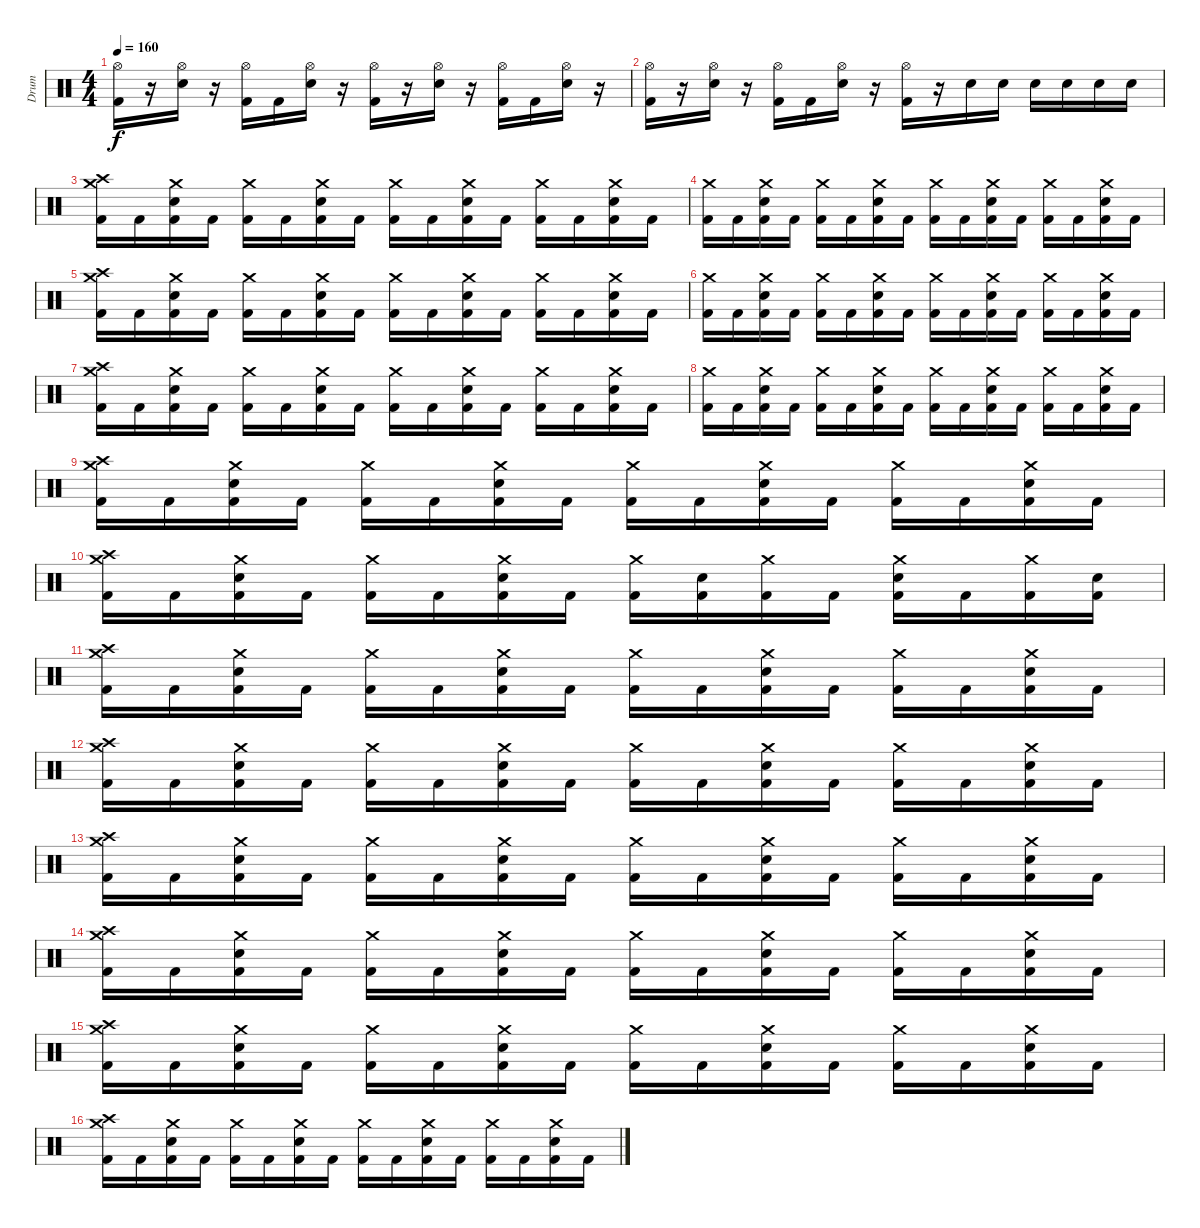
\track ("Drum" "Drum") {instrument percussion}
\staff {score}
\articulation defaults
\ts (4 4)
\tempo 160
\clef neutral
\ks c
("Hi-Hat (open)" "Kick (hit) 2").16{dy f} r.16 ("Hi-Hat (open)" "Electric Snare (hit)").16 r.16 ("Hi-Hat (open)" "Kick (hit) 2").16 "Kick (hit) 2".16 ("Hi-Hat (open)" "Electric Snare (hit)").16 r.16 ("Hi-Hat (open)" "Kick (hit) 2").16 r.16 ("Hi-Hat (open)" "Electric Snare (hit)").16 r.16 ("Hi-Hat (open)" "Kick (hit) 2").16 "Kick (hit) 2".16 ("Hi-Hat (open)" "Electric Snare (hit)").16 r.16 |
("Hi-Hat (open)" "Kick (hit) 2").16 r.16 ("Hi-Hat (open)" "Electric Snare (hit)").16 r.16 ("Hi-Hat (open)" "Kick (hit) 2").16 "Kick (hit) 2".16 ("Hi-Hat (open)" "Electric Snare (hit)").16 r.16 ("Hi-Hat (open)" "Kick (hit) 2").16 r.16 "Electric Snare (hit)".16 "Electric Snare (hit)".16 "Electric Snare (hit)".16 "Electric Snare (hit)".16 "Electric Snare (hit)".16 "Electric Snare (hit)".16 |
("Crash high (hit)" "Crash medium (hit)" "Kick (hit) 2").16 "Kick (hit) 2".16 ("Crash medium (hit)" "Kick (hit) 2" "Electric Snare (hit)").16 "Kick (hit) 2".16 ("Crash medium (hit)" "Kick (hit) 2").16 "Kick (hit) 2".16 ("Crash medium (hit)" "Kick (hit) 2" "Electric Snare (hit)").16 "Kick (hit) 2".16 ("Crash medium (hit)" "Kick (hit) 2").16 "Kick (hit) 2".16 ("Crash medium (hit)" "Kick (hit) 2" "Electric Snare (hit)").16 "Kick (hit) 2".16 ("Crash medium (hit)" "Kick (hit) 2").16 "Kick (hit) 2".16 ("Crash medium (hit)" "Kick (hit) 2" "Electric Snare (hit)").16 "Kick (hit) 2".16 |
("Crash medium (hit)" "Kick (hit) 2").16 "Kick (hit) 2".16 ("Crash medium (hit)" "Kick (hit) 2" "Electric Snare (hit)").16 "Kick (hit) 2".16 ("Crash medium (hit)" "Kick (hit) 2").16 "Kick (hit) 2".16 ("Crash medium (hit)" "Kick (hit) 2" "Electric Snare (hit)").16 "Kick (hit) 2".16 ("Crash medium (hit)" "Kick (hit) 2").16 "Kick (hit) 2".16 ("Crash medium (hit)" "Kick (hit) 2" "Electric Snare (hit)").16 "Kick (hit) 2".16 ("Crash medium (hit)" "Kick (hit) 2").16 "Kick (hit) 2".16 ("Crash medium (hit)" "Kick (hit) 2" "Electric Snare (hit)").16 "Kick (hit) 2".16 |
("Crash high (hit)" "Crash medium (hit)" "Kick (hit) 2").16 "Kick (hit) 2".16 ("Crash medium (hit)" "Kick (hit) 2" "Electric Snare (hit)").16 "Kick (hit) 2".16 ("Crash medium (hit)" "Kick (hit) 2").16 "Kick (hit) 2".16 ("Crash medium (hit)" "Kick (hit) 2" "Electric Snare (hit)").16 "Kick (hit) 2".16 ("Crash medium (hit)" "Kick (hit) 2").16 "Kick (hit) 2".16 ("Crash medium (hit)" "Kick (hit) 2" "Electric Snare (hit)").16 "Kick (hit) 2".16 ("Crash medium (hit)" "Kick (hit) 2").16 "Kick (hit) 2".16 ("Crash medium (hit)" "Kick (hit) 2" "Electric Snare (hit)").16 "Kick (hit) 2".16 |
("Crash medium (hit)" "Kick (hit) 2").16 "Kick (hit) 2".16 ("Crash medium (hit)" "Kick (hit) 2" "Electric Snare (hit)").16 "Kick (hit) 2".16 ("Crash medium (hit)" "Kick (hit) 2").16 "Kick (hit) 2".16 ("Crash medium (hit)" "Kick (hit) 2" "Electric Snare (hit)").16 "Kick (hit) 2".16 ("Crash medium (hit)" "Kick (hit) 2").16 "Kick (hit) 2".16 ("Crash medium (hit)" "Kick (hit) 2" "Electric Snare (hit)").16 "Kick (hit) 2".16 ("Crash medium (hit)" "Kick (hit) 2").16 "Kick (hit) 2".16 ("Crash medium (hit)" "Kick (hit) 2" "Electric Snare (hit)").16 "Kick (hit) 2".16 |
("Crash high (hit)" "Crash medium (hit)" "Kick (hit) 2").16 "Kick (hit) 2".16 ("Crash medium (hit)" "Kick (hit) 2" "Electric Snare (hit)").16 "Kick (hit) 2".16 ("Crash medium (hit)" "Kick (hit) 2").16 "Kick (hit) 2".16 ("Crash medium (hit)" "Kick (hit) 2" "Electric Snare (hit)").16 "Kick (hit) 2".16 ("Crash medium (hit)" "Kick (hit) 2").16 "Kick (hit) 2".16 ("Crash medium (hit)" "Kick (hit) 2" "Electric Snare (hit)").16 "Kick (hit) 2".16 ("Crash medium (hit)" "Kick (hit) 2").16 "Kick (hit) 2".16 ("Crash medium (hit)" "Kick (hit) 2" "Electric Snare (hit)").16 "Kick (hit) 2".16 |
("Crash medium (hit)" "Kick (hit) 2").16 "Kick (hit) 2".16 ("Crash medium (hit)" "Kick (hit) 2" "Electric Snare (hit)").16 "Kick (hit) 2".16 ("Crash medium (hit)" "Kick (hit) 2").16 "Kick (hit) 2".16 ("Crash medium (hit)" "Kick (hit) 2" "Electric Snare (hit)").16 "Kick (hit) 2".16 ("Crash medium (hit)" "Kick (hit) 2").16 "Kick (hit) 2".16 ("Crash medium (hit)" "Kick (hit) 2" "Electric Snare (hit)").16 "Kick (hit) 2".16 ("Crash medium (hit)" "Kick (hit) 2").16 "Kick (hit) 2".16 ("Crash medium (hit)" "Kick (hit) 2" "Electric Snare (hit)").16 "Kick (hit) 2".16 |
("Crash high (hit)" "Crash medium (hit)" "Kick (hit) 2").16 "Kick (hit) 2".16 ("Crash medium (hit)" "Kick (hit) 2" "Electric Snare (hit)").16 "Kick (hit) 2".16 ("Crash medium (hit)" "Kick (hit) 2").16 "Kick (hit) 2".16 ("Crash medium (hit)" "Kick (hit) 2" "Electric Snare (hit)").16 "Kick (hit) 2".16 ("Crash medium (hit)" "Kick (hit) 2").16 "Kick (hit) 2".16 ("Crash medium (hit)" "Kick (hit) 2" "Electric Snare (hit)").16 "Kick (hit) 2".16 ("Crash medium (hit)" "Kick (hit) 2").16 "Kick (hit) 2".16 ("Crash medium (hit)" "Kick (hit) 2" "Electric Snare (hit)").16 "Kick (hit) 2".16 |
("Crash high (hit)" "Crash medium (hit)" "Kick (hit) 2").16 "Kick (hit) 2".16 ("Crash medium (hit)" "Kick (hit) 2" "Electric Snare (hit)").16 "Kick (hit) 2".16 ("Crash medium (hit)" "Kick (hit) 2").16 "Kick (hit) 2".16 ("Crash medium (hit)" "Kick (hit) 2" "Electric Snare (hit)").16 "Kick (hit) 2".16 ("Crash medium (hit)" "Kick (hit) 2").16 ("Kick (hit) 2" "Electric Snare (hit)").16 ("Crash medium (hit)" "Kick (hit) 2").16 "Kick (hit) 2".16 ("Crash medium (hit)" "Kick (hit) 2" "Electric Snare (hit)").16 "Kick (hit) 2".16 ("Crash medium (hit)" "Kick (hit) 2").16 ("Kick (hit) 2" "Electric Snare (hit)").16 |
("Crash high (hit)" "Crash medium (hit)" "Kick (hit) 2").16 "Kick (hit) 2".16 ("Crash medium (hit)" "Kick (hit) 2" "Electric Snare (hit)").16 "Kick (hit) 2".16 ("Crash medium (hit)" "Kick (hit) 2").16 "Kick (hit) 2".16 ("Crash medium (hit)" "Kick (hit) 2" "Electric Snare (hit)").16 "Kick (hit) 2".16 ("Crash medium (hit)" "Kick (hit) 2").16 "Kick (hit) 2".16 ("Crash medium (hit)" "Kick (hit) 2" "Electric Snare (hit)").16 "Kick (hit) 2".16 ("Crash medium (hit)" "Kick (hit) 2").16 "Kick (hit) 2".16 ("Crash medium (hit)" "Kick (hit) 2" "Electric Snare (hit)").16 "Kick (hit) 2".16 |
("Crash high (hit)" "Crash medium (hit)" "Kick (hit) 2").16 "Kick (hit) 2".16 ("Crash medium (hit)" "Kick (hit) 2" "Electric Snare (hit)").16 "Kick (hit) 2".16 ("Crash medium (hit)" "Kick (hit) 2").16 "Kick (hit) 2".16 ("Crash medium (hit)" "Kick (hit) 2" "Electric Snare (hit)").16 "Kick (hit) 2".16 ("Crash medium (hit)" "Kick (hit) 2").16 "Kick (hit) 2".16 ("Crash medium (hit)" "Kick (hit) 2" "Electric Snare (hit)").16 "Kick (hit) 2".16 ("Crash medium (hit)" "Kick (hit) 2").16 "Kick (hit) 2".16 ("Crash medium (hit)" "Kick (hit) 2" "Electric Snare (hit)").16 "Kick (hit) 2".16 |
("Crash high (hit)" "Crash medium (hit)" "Kick (hit) 2").16 "Kick (hit) 2".16 ("Crash medium (hit)" "Kick (hit) 2" "Electric Snare (hit)").16 "Kick (hit) 2".16 ("Crash medium (hit)" "Kick (hit) 2").16 "Kick (hit) 2".16 ("Crash medium (hit)" "Kick (hit) 2" "Electric Snare (hit)").16 "Kick (hit) 2".16 ("Crash medium (hit)" "Kick (hit) 2").16 "Kick (hit) 2".16 ("Crash medium (hit)" "Kick (hit) 2" "Electric Snare (hit)").16 "Kick (hit) 2".16 ("Crash medium (hit)" "Kick (hit) 2").16 "Kick (hit) 2".16 ("Crash medium (hit)" "Kick (hit) 2" "Electric Snare (hit)").16 "Kick (hit) 2".16 |
("Crash high (hit)" "Crash medium (hit)" "Kick (hit) 2").16 "Kick (hit) 2".16 ("Crash medium (hit)" "Kick (hit) 2" "Electric Snare (hit)").16 "Kick (hit) 2".16 ("Crash medium (hit)" "Kick (hit) 2").16 "Kick (hit) 2".16 ("Crash medium (hit)" "Kick (hit) 2" "Electric Snare (hit)").16 "Kick (hit) 2".16 ("Crash medium (hit)" "Kick (hit) 2").16 "Kick (hit) 2".16 ("Crash medium (hit)" "Kick (hit) 2" "Electric Snare (hit)").16 "Kick (hit) 2".16 ("Crash medium (hit)" "Kick (hit) 2").16 "Kick (hit) 2".16 ("Crash medium (hit)" "Kick (hit) 2" "Electric Snare (hit)").16 "Kick (hit) 2".16 |
("Crash high (hit)" "Crash medium (hit)" "Kick (hit) 2").16 "Kick (hit) 2".16 ("Crash medium (hit)" "Kick (hit) 2" "Electric Snare (hit)").16 "Kick (hit) 2".16 ("Crash medium (hit)" "Kick (hit) 2").16 "Kick (hit) 2".16 ("Crash medium (hit)" "Kick (hit) 2" "Electric Snare (hit)").16 "Kick (hit) 2".16 ("Crash medium (hit)" "Kick (hit) 2").16 "Kick (hit) 2".16 ("Crash medium (hit)" "Kick (hit) 2" "Electric Snare (hit)").16 "Kick (hit) 2".16 ("Crash medium (hit)" "Kick (hit) 2").16 "Kick (hit) 2".16 ("Crash medium (hit)" "Kick (hit) 2" "Electric Snare (hit)").16 "Kick (hit) 2".16 |
("Crash high (hit)" "Crash medium (hit)" "Kick (hit) 2").16 "Kick (hit) 2".16 ("Crash medium (hit)" "Kick (hit) 2" "Electric Snare (hit)").16 "Kick (hit) 2".16 ("Crash medium (hit)" "Kick (hit) 2").16 "Kick (hit) 2".16 ("Crash medium (hit)" "Kick (hit) 2" "Electric Snare (hit)").16 "Kick (hit) 2".16 ("Crash medium (hit)" "Kick (hit) 2").16 "Kick (hit) 2".16 ("Crash medium (hit)" "Kick (hit) 2" "Electric Snare (hit)").16 "Kick (hit) 2".16 ("Crash medium (hit)" "Kick (hit) 2").16 "Kick (hit) 2".16 ("Crash medium (hit)" "Kick (hit) 2" "Electric Snare (hit)").16 "Kick (hit) 2".16
